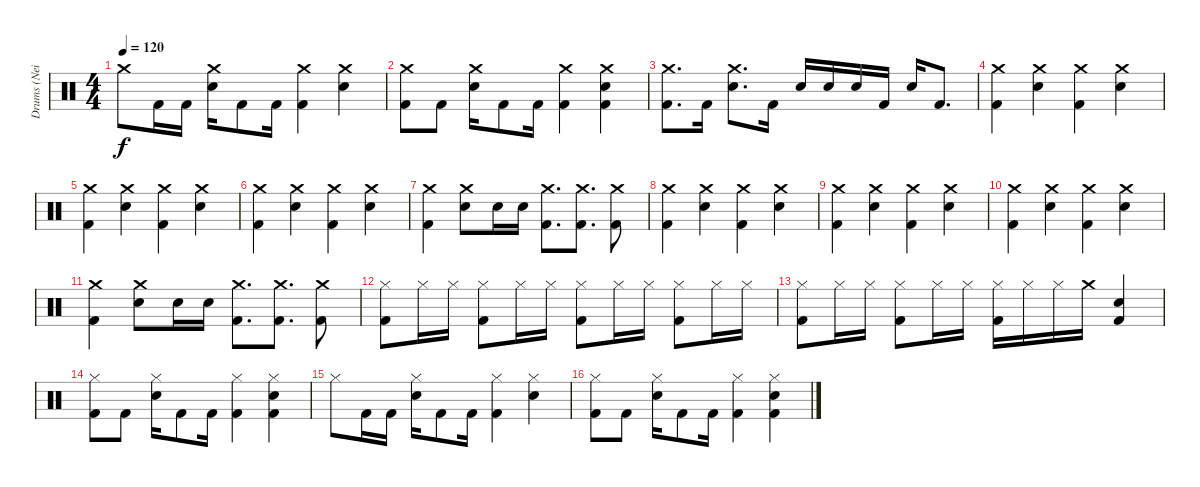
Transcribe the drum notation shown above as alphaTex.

\track ("Drums (Neil)" "Drums (Nei") {instrument percussion}
\staff {score}
\articulation defaults
\ts (4 4)
\tempo 120
\clef neutral
\ks c "Crash medium (hit)".8{dy f} "Kick (hit) 2".16 "Kick (hit) 2".16
("Crash medium (hit)" "Electric Snare (hit)").16 "Kick (hit) 2".8 "Kick (hit) 2".16 ("Crash medium (hit)" "Kick (hit) 2").4 ("Crash medium (hit)" "Electric Snare (hit)").4 |
("Crash medium (hit)" "Kick (hit) 2").8 "Kick (hit) 2".8 ("Crash medium (hit)" "Electric Snare (hit)").16 "Kick (hit) 2".8 "Kick (hit) 2".16 ("Crash medium (hit)" "Kick (hit) 2").4 ("Crash medium (hit)" "Electric Snare (hit)" "Kick (hit) 2").4 |
("Crash medium (hit)" "Kick (hit) 2").8{d} "Kick (hit) 2".16 ("Crash medium (hit)" "Electric Snare (hit)").8{d} "Kick (hit) 2".16 "Electric Snare (hit)".16 "Electric Snare (hit)".16 "Electric Snare (hit)".16 "Kick (hit) 2".16 "Electric Snare (hit)".16 "Kick (hit) 2".8{d} |
("Crash medium (hit)" "Kick (hit) 2").4 ("Crash medium (hit)" "Electric Snare (hit)").4 ("Crash medium (hit)" "Kick (hit) 2").4 ("Crash medium (hit)" "Electric Snare (hit)").4 |
("Crash medium (hit)" "Kick (hit) 2").4 ("Crash medium (hit)" "Electric Snare (hit)").4 ("Crash medium (hit)" "Kick (hit) 2").4 ("Crash medium (hit)" "Electric Snare (hit)").4 |
("Crash medium (hit)" "Kick (hit) 2").4 ("Crash medium (hit)" "Electric Snare (hit)").4 ("Crash medium (hit)" "Kick (hit) 2").4 ("Crash medium (hit)" "Electric Snare (hit)").4 |
("Crash medium (hit)" "Kick (hit) 2").4 ("Crash medium (hit)" "Electric Snare (hit)").8 "Electric Snare (hit)".16 "Electric Snare (hit)".16 ("Crash medium (hit)" "Kick (hit) 2").8{d} ("Crash medium (hit)" "Kick (hit) 2").8{d} ("Crash medium (hit)" "Kick (hit) 2").8 |
("Crash medium (hit)" "Kick (hit) 2").4 ("Crash medium (hit)" "Electric Snare (hit)").4 ("Crash medium (hit)" "Kick (hit) 2").4 ("Crash medium (hit)" "Electric Snare (hit)").4 |
("Crash medium (hit)" "Kick (hit) 2").4 ("Crash medium (hit)" "Electric Snare (hit)").4 ("Crash medium (hit)" "Kick (hit) 2").4 ("Crash medium (hit)" "Electric Snare (hit)").4 |
("Crash medium (hit)" "Kick (hit) 2").4 ("Crash medium (hit)" "Electric Snare (hit)").4 ("Crash medium (hit)" "Kick (hit) 2").4 ("Crash medium (hit)" "Electric Snare (hit)").4 |
("Crash medium (hit)" "Kick (hit) 2").4 ("Crash medium (hit)" "Electric Snare (hit)").8 "Electric Snare (hit)".16 "Electric Snare (hit)".16 ("Crash medium (hit)" "Kick (hit) 2").8{d} ("Crash medium (hit)" "Kick (hit) 2").8{d} ("Crash medium (hit)" "Kick (hit) 2").8 |
("Hi-Hat (closed)" "Kick (hit) 2").8 "Hi-Hat (closed)".16 "Hi-Hat (closed)".16 ("Hi-Hat (closed)" "Kick (hit) 2").8 "Hi-Hat (closed)".16 "Hi-Hat (closed)".16 ("Hi-Hat (closed)" "Kick (hit) 2").8 "Hi-Hat (closed)".16 "Hi-Hat (closed)".16 ("Hi-Hat (closed)" "Kick (hit) 2").8 "Hi-Hat (closed)".16 "Hi-Hat (closed)".16 |
("Hi-Hat (closed)" "Kick (hit) 2").8 "Hi-Hat (closed)".16 "Hi-Hat (closed)".16 ("Hi-Hat (closed)" "Kick (hit) 2").8 "Hi-Hat (closed)".16 "Hi-Hat (closed)".16 ("Hi-Hat (closed)" "Kick (hit) 2").16 "Hi-Hat (closed)".16 "Hi-Hat (closed)".16 "Crash medium (hit)".16 ("Electric Snare (hit)" "Kick (hit) 2").4 |
("Hi-Hat (closed)" "Kick (hit) 2").8 "Kick (hit) 2".8 ("Hi-Hat (closed)" "Electric Snare (hit)").16 "Kick (hit) 2".8 "Kick (hit) 2".16 ("Hi-Hat (closed)" "Kick (hit) 2").4 ("Hi-Hat (closed)" "Electric Snare (hit)" "Kick (hit) 2").4 |
"Hi-Hat (closed)".8 "Kick (hit) 2".16 "Kick (hit) 2".16 ("Hi-Hat (closed)" "Electric Snare (hit)").16 "Kick (hit) 2".8 "Kick (hit) 2".16 ("Hi-Hat (closed)" "Kick (hit) 2").4 ("Hi-Hat (closed)" "Electric Snare (hit)").4 |
("Hi-Hat (closed)" "Kick (hit) 2").8 "Kick (hit) 2".8 ("Hi-Hat (closed)" "Electric Snare (hit)").16 "Kick (hit) 2".8 "Kick (hit) 2".16 ("Hi-Hat (closed)" "Kick (hit) 2").4 ("Hi-Hat (closed)" "Electric Snare (hit)" "Kick (hit) 2").4
